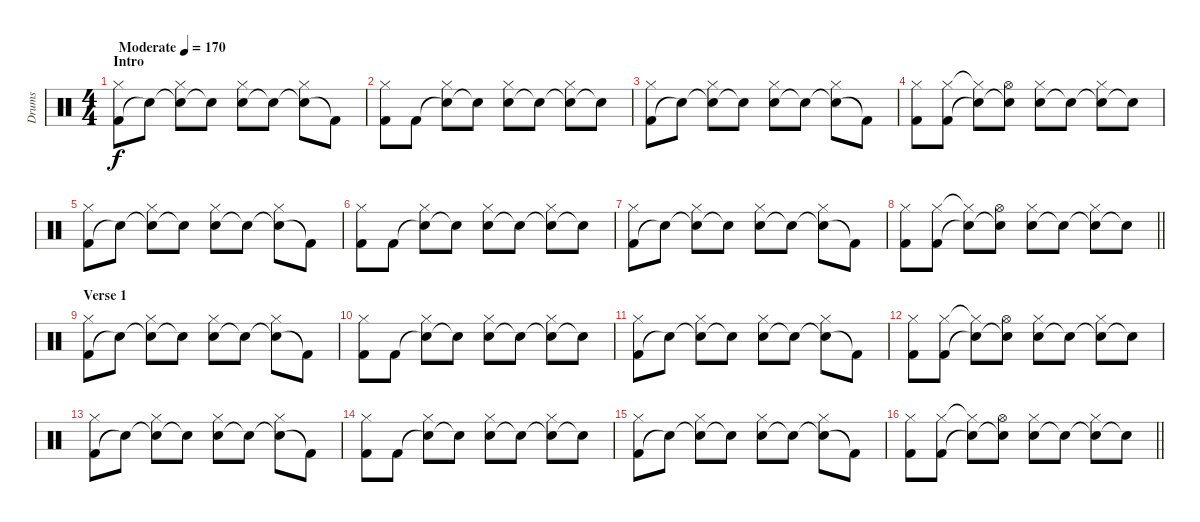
\track ("Drums" "Drums") {instrument percussion}
\staff {score}
\articulation defaults
\ts (4 4)
\section ("" "Intro")
\tempo (170 "Moderate")
\clef neutral
\ks c
("Kick (hit) 2" "Hi-Hat (closed)").8{dy f} "Snare (hit)"{t}.8 ("Electric Snare (hit)"{t} "Hi-Hat (closed)").8 "Electric Snare (hit)"{t}.8 ("Electric Snare (hit)" "Hi-Hat (closed)").8 "Snare (hit)"{t}.8 ("Snare (hit)"{t} "Hi-Hat (closed)").8 "Kick (hit) 2"{t}.8 |
("Kick (hit) 2" "Hi-Hat (closed)").8 "Kick (hit) 2".8 ("Snare (hit)"{t} "Hi-Hat (closed)").8 "Snare (hit)"{t}.8 ("Electric Snare (hit)" "Hi-Hat (closed)").8 "Snare (hit)"{t}.8 ("Snare (hit)"{t} "Hi-Hat (closed)").8 "Snare (hit)"{t}.8 |
("Kick (hit) 2" "Hi-Hat (closed)").8 "Snare (hit)"{t}.8 ("Electric Snare (hit)"{t} "Hi-Hat (closed)").8 "Electric Snare (hit)"{t}.8 ("Electric Snare (hit)" "Hi-Hat (closed)").8 "Snare (hit)"{t}.8 ("Snare (hit)"{t} "Hi-Hat (closed)").8 "Kick (hit) 2"{t}.8 |
("Kick (hit) 2" "Hi-Hat (closed)").8 ("Kick (hit) 2" "Hi-Hat (closed)").8 ("Snare (hit)"{t} "Hi-Hat (closed)"{t}).8 ("Snare (hit)"{t} "Hi-Hat (open)").8 ("Electric Snare (hit)" "Hi-Hat (closed)").8 "Snare (hit)"{t}.8 ("Snare (hit)"{t} "Hi-Hat (closed)").8 "Snare (hit)"{t}.8 |
("Kick (hit) 2" "Hi-Hat (closed)").8 "Snare (hit)"{t}.8 ("Electric Snare (hit)"{t} "Hi-Hat (closed)").8 "Electric Snare (hit)"{t}.8 ("Electric Snare (hit)" "Hi-Hat (closed)").8 "Snare (hit)"{t}.8 ("Snare (hit)"{t} "Hi-Hat (closed)").8 "Kick (hit) 2"{t}.8 |
("Kick (hit) 2" "Hi-Hat (closed)").8 "Kick (hit) 2".8 ("Snare (hit)"{t} "Hi-Hat (closed)").8 "Snare (hit)"{t}.8 ("Electric Snare (hit)" "Hi-Hat (closed)").8 "Snare (hit)"{t}.8 ("Snare (hit)"{t} "Hi-Hat (closed)").8 "Snare (hit)"{t}.8 |
("Kick (hit) 2" "Hi-Hat (closed)").8 "Snare (hit)"{t}.8 ("Electric Snare (hit)"{t} "Hi-Hat (closed)").8 "Electric Snare (hit)"{t}.8 ("Electric Snare (hit)" "Hi-Hat (closed)").8 "Snare (hit)"{t}.8 ("Snare (hit)"{t} "Hi-Hat (closed)").8 "Kick (hit) 2"{t}.8 |
\barLineRight lightlight
("Kick (hit) 2" "Hi-Hat (closed)").8 ("Kick (hit) 2" "Hi-Hat (closed)").8 ("Snare (hit)"{t} "Hi-Hat (closed)"{t}).8 ("Snare (hit)"{t} "Hi-Hat (open)").8 ("Electric Snare (hit)" "Hi-Hat (closed)").8 "Snare (hit)"{t}.8 ("Snare (hit)"{t} "Hi-Hat (closed)").8 "Snare (hit)"{t}.8 |
\section ("" "Verse 1")
("Kick (hit) 2" "Hi-Hat (closed)").8 "Snare (hit)"{t}.8 ("Electric Snare (hit)"{t} "Hi-Hat (closed)").8 "Electric Snare (hit)"{t}.8 ("Electric Snare (hit)" "Hi-Hat (closed)").8 "Snare (hit)"{t}.8 ("Snare (hit)"{t} "Hi-Hat (closed)").8 "Kick (hit) 2"{t}.8 |
("Kick (hit) 2" "Hi-Hat (closed)").8 "Kick (hit) 2".8 ("Snare (hit)"{t} "Hi-Hat (closed)").8 "Snare (hit)"{t}.8 ("Electric Snare (hit)" "Hi-Hat (closed)").8 "Snare (hit)"{t}.8 ("Snare (hit)"{t} "Hi-Hat (closed)").8 "Snare (hit)"{t}.8 |
("Kick (hit) 2" "Hi-Hat (closed)").8 "Snare (hit)"{t}.8 ("Electric Snare (hit)"{t} "Hi-Hat (closed)").8 "Electric Snare (hit)"{t}.8 ("Electric Snare (hit)" "Hi-Hat (closed)").8 "Snare (hit)"{t}.8 ("Snare (hit)"{t} "Hi-Hat (closed)").8 "Kick (hit) 2"{t}.8 |
("Kick (hit) 2" "Hi-Hat (closed)").8 ("Kick (hit) 2" "Hi-Hat (closed)").8 ("Snare (hit)"{t} "Hi-Hat (closed)"{t}).8 ("Snare (hit)"{t} "Hi-Hat (open)").8 ("Electric Snare (hit)" "Hi-Hat (closed)").8 "Snare (hit)"{t}.8 ("Snare (hit)"{t} "Hi-Hat (closed)").8 "Snare (hit)"{t}.8 |
("Kick (hit) 2" "Hi-Hat (closed)").8 "Snare (hit)"{t}.8 ("Electric Snare (hit)"{t} "Hi-Hat (closed)").8 "Electric Snare (hit)"{t}.8 ("Electric Snare (hit)" "Hi-Hat (closed)").8 "Snare (hit)"{t}.8 ("Snare (hit)"{t} "Hi-Hat (closed)").8 "Kick (hit) 2"{t}.8 |
("Kick (hit) 2" "Hi-Hat (closed)").8 "Kick (hit) 2".8 ("Snare (hit)"{t} "Hi-Hat (closed)").8 "Snare (hit)"{t}.8 ("Electric Snare (hit)" "Hi-Hat (closed)").8 "Snare (hit)"{t}.8 ("Snare (hit)"{t} "Hi-Hat (closed)").8 "Snare (hit)"{t}.8 |
("Kick (hit) 2" "Hi-Hat (closed)").8 "Snare (hit)"{t}.8 ("Electric Snare (hit)"{t} "Hi-Hat (closed)").8 "Electric Snare (hit)"{t}.8 ("Electric Snare (hit)" "Hi-Hat (closed)").8 "Snare (hit)"{t}.8 ("Snare (hit)"{t} "Hi-Hat (closed)").8 "Kick (hit) 2"{t}.8 |
\barLineRight lightlight
("Kick (hit) 2" "Hi-Hat (closed)").8 ("Kick (hit) 2" "Hi-Hat (closed)").8 ("Snare (hit)"{t} "Hi-Hat (closed)"{t}).8 ("Snare (hit)"{t} "Hi-Hat (open)").8 ("Electric Snare (hit)" "Hi-Hat (closed)").8 "Snare (hit)"{t}.8 ("Snare (hit)"{t} "Hi-Hat (closed)").8 "Snare (hit)"{t}.8
